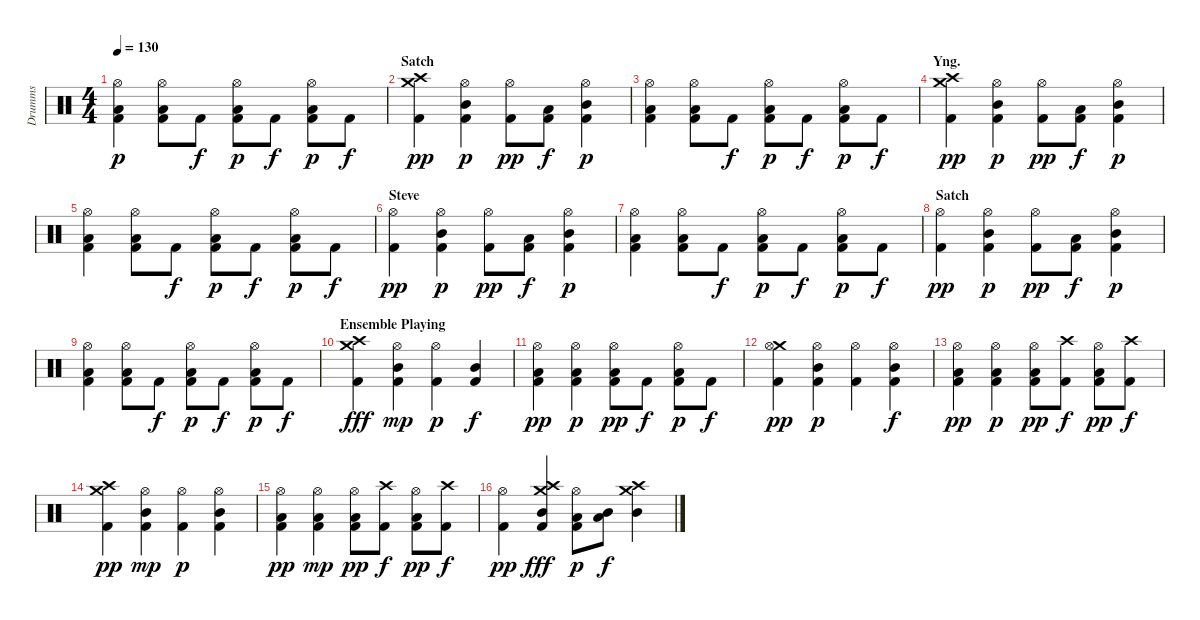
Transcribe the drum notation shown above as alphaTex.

\track ("Drumms" "Drumms") {instrument percussion}
\staff {score}
\articulation defaults
\ts (4 4)
\tempo 130
\clef neutral
\ks c
("Hi-Hat (open)" "Kick (hit) 2" "Low Tom (hit)").4{dy p} ("Hi-Hat (open)" "Kick (hit) 2" "Low Tom (hit)").8 "Kick (hit) 2".8{dy f} ("Hi-Hat (open)" "Kick (hit) 2" "Low Tom (hit)").8{dy p} "Kick (hit) 2".8{dy f} ("Hi-Hat (open)" "Kick (hit) 2" "Low Tom (hit)").8{dy p} "Kick (hit) 2".8{dy f} |
\section ("" "Satch")
("Crash medium (hit)" "Crash high (hit)" "Kick (hit) 2").4{dy pp} ("Hi-Hat (open)" "Kick (hit) 2" "Mid Tom (hit)").4{dy p} ("Hi-Hat (open)" "Kick (hit) 2").8{dy pp} ("Kick (hit) 2" "Low Tom (hit)").8{dy f} ("Hi-Hat (open)" "Kick (hit) 2" "Mid Tom (hit)").4{dy p} |
("Hi-Hat (open)" "Kick (hit) 2" "Low Tom (hit)").4 ("Hi-Hat (open)" "Kick (hit) 2" "Low Tom (hit)").8 "Kick (hit) 2".8{dy f} ("Hi-Hat (open)" "Kick (hit) 2" "Low Tom (hit)").8{dy p} "Kick (hit) 2".8{dy f} ("Hi-Hat (open)" "Kick (hit) 2" "Low Tom (hit)").8{dy p} "Kick (hit) 2".8{dy f} |
\section ("" "Yng.")
("Crash medium (hit)" "Crash high (hit)" "Kick (hit) 2").4{dy pp} ("Hi-Hat (open)" "Kick (hit) 2" "Mid Tom (hit)").4{dy p} ("Hi-Hat (open)" "Kick (hit) 2").8{dy pp} ("Kick (hit) 2" "Low Tom (hit)").8{dy f} ("Hi-Hat (open)" "Kick (hit) 2" "Mid Tom (hit)").4{dy p} |
("Hi-Hat (open)" "Kick (hit) 2" "Low Tom (hit)").4 ("Hi-Hat (open)" "Kick (hit) 2" "Low Tom (hit)").8 "Kick (hit) 2".8{dy f} ("Hi-Hat (open)" "Kick (hit) 2" "Low Tom (hit)").8{dy p} "Kick (hit) 2".8{dy f} ("Hi-Hat (open)" "Kick (hit) 2" "Low Tom (hit)").8{dy p} "Kick (hit) 2".8{dy f} |
\section ("" "Steve")
("Hi-Hat (open)" "Kick (hit) 2").4{dy pp} ("Hi-Hat (open)" "Kick (hit) 2" "Mid Tom (hit)").4{dy p} ("Hi-Hat (open)" "Kick (hit) 2").8{dy pp} ("Kick (hit) 2" "Low Tom (hit)").8{dy f} ("Hi-Hat (open)" "Kick (hit) 2" "Mid Tom (hit)").4{dy p} |
("Hi-Hat (open)" "Kick (hit) 2" "Low Tom (hit)").4 ("Hi-Hat (open)" "Kick (hit) 2" "Low Tom (hit)").8 "Kick (hit) 2".8{dy f} ("Hi-Hat (open)" "Kick (hit) 2" "Low Tom (hit)").8{dy p} "Kick (hit) 2".8{dy f} ("Hi-Hat (open)" "Kick (hit) 2" "Low Tom (hit)").8{dy p} "Kick (hit) 2".8{dy f} |
\section ("" "Satch")
("Hi-Hat (open)" "Kick (hit) 2").4{dy pp} ("Hi-Hat (open)" "Kick (hit) 2" "Mid Tom (hit)").4{dy p} ("Hi-Hat (open)" "Kick (hit) 2").8{dy pp} ("Kick (hit) 2" "Low Tom (hit)").8{dy f} ("Hi-Hat (open)" "Kick (hit) 2" "Mid Tom (hit)").4{dy p} |
("Hi-Hat (open)" "Kick (hit) 2" "Low Tom (hit)").4 ("Hi-Hat (open)" "Kick (hit) 2" "Low Tom (hit)").8 "Kick (hit) 2".8{dy f} ("Hi-Hat (open)" "Kick (hit) 2" "Low Tom (hit)").8{dy p} "Kick (hit) 2".8{dy f} ("Hi-Hat (open)" "Kick (hit) 2" "Low Tom (hit)").8{dy p} "Kick (hit) 2".8{dy f} |
\section ("" "Ensemble Playing")
("Crash medium (hit)" "Crash high (hit)" "Kick (hit) 2").4{dy fff} ("Hi-Hat (open)" "Kick (hit) 2" "Mid Tom (hit)").4{dy mp} ("Hi-Hat (open)" "Kick (hit) 2").4{dy p} ("Kick (hit) 2" "Mid Tom (hit)").4{dy f} |
("Hi-Hat (open)" "Kick (hit) 2" "Low Tom (hit)").4{dy pp} ("Hi-Hat (open)" "Kick (hit) 2" "Low Tom (hit)").4{dy p} ("Hi-Hat (open)" "Kick (hit) 2" "Low Tom (hit)").8{dy pp} "Kick (hit) 2".8{dy f} ("Hi-Hat (open)" "Kick (hit) 2" "Low Tom (hit)").8{dy p} "Kick (hit) 2".8{dy f} |
("Crash medium (hit)" "Hi-Hat (open)" "Kick (hit) 2").4{dy pp} ("Hi-Hat (open)" "Kick (hit) 2" "Mid Tom (hit)").4{dy p} ("Hi-Hat (open)" "Kick (hit) 2").4 ("Hi-Hat (open)" "Kick (hit) 2" "Mid Tom (hit)").4{dy f} |
("Hi-Hat (open)" "Kick (hit) 2" "Low Tom (hit)").4{dy pp} ("Hi-Hat (open)" "Kick (hit) 2" "Low Tom (hit)").4{dy p} ("Hi-Hat (open)" "Kick (hit) 2" "Low Tom (hit)").8{dy pp} ("Crash high (hit)" "Kick (hit) 2").8{dy f} ("Hi-Hat (open)" "Kick (hit) 2" "Low Tom (hit)").8{dy pp} ("Crash high (hit)" "Kick (hit) 2").8{dy f} |
("Crash medium (hit)" "Crash high (hit)" "Kick (hit) 2").4{dy pp} ("Hi-Hat (open)" "Kick (hit) 2" "Mid Tom (hit)").4{dy mp} ("Hi-Hat (open)" "Kick (hit) 2").4{dy p} ("Hi-Hat (open)" "Kick (hit) 2" "Mid Tom (hit)").4 |
("Hi-Hat (open)" "Kick (hit) 2" "Low Tom (hit)").4{dy pp} ("Hi-Hat (open)" "Kick (hit) 2" "Low Tom (hit)").4{dy mp} ("Hi-Hat (open)" "Kick (hit) 2" "Low Tom (hit)").8{dy pp} ("Crash high (hit)" "Kick (hit) 2").8{dy f} ("Hi-Hat (open)" "Kick (hit) 2" "Low Tom (hit)").8{dy pp} ("Crash high (hit)" "Kick (hit) 2").8{dy f} |
("Hi-Hat (open)" "Kick (hit) 2").4{dy pp} ("Crash medium (hit)" "Crash high (hit)" "Kick (hit) 2" "Mid Tom (hit)").4{dy fff} ("Hi-Hat (open)" "Low Tom (hit)" "Kick (hit) 2").8{dy p} ("Low Tom (hit)" "Mid Tom (hit)").8{dy f} ("Crash medium (hit)" "Crash high (hit)" "Mid Tom (hit)").4
